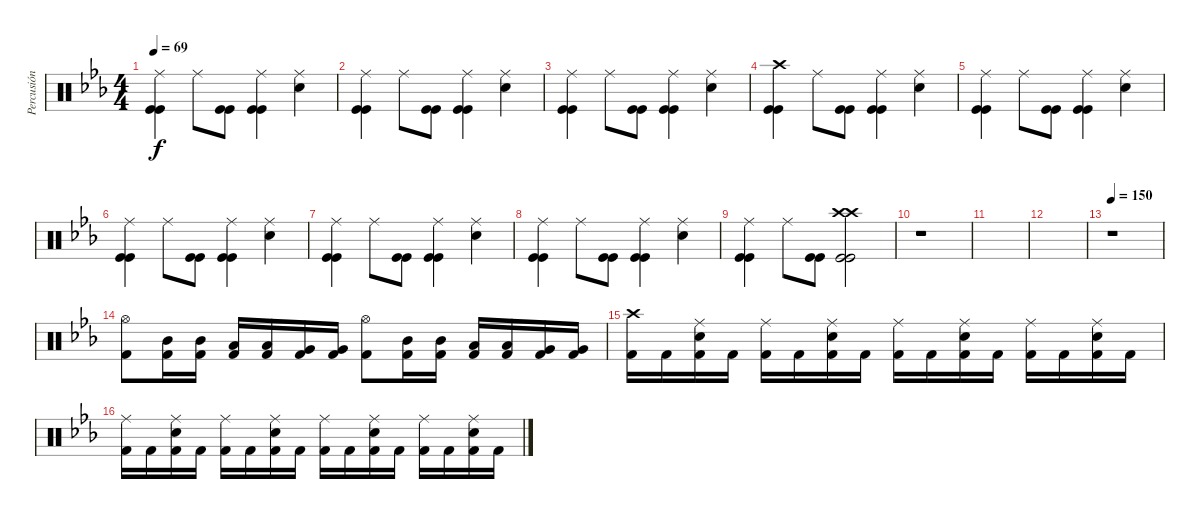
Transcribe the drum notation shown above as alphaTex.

\track ("Percusión" "Percusión") {instrument percussion}
\staff {score}
\articulation defaults
\ts (4 4)
\tempo 69
\clef neutral
\ks cminor
("Ride (middle)" "Kick (hit)" "Kick (hit)").4{dy f} "Ride (middle)".8 ("Kick (hit)" "Kick (hit)").8 ("Ride (middle)" "Kick (hit)" "Kick (hit)").4 ("Ride (middle)" "Electric Snare (hit)").4 |
("Ride (middle)" "Kick (hit)" "Kick (hit)").4 "Ride (middle)".8 ("Kick (hit)" "Kick (hit)").8 ("Ride (middle)" "Kick (hit)" "Kick (hit)").4 ("Ride (middle)" "Electric Snare (hit)").4 |
("Ride (middle)" "Kick (hit)" "Kick (hit)").4 "Ride (middle)".8 ("Kick (hit)" "Kick (hit)").8 ("Ride (middle)" "Kick (hit)" "Kick (hit)").4 ("Ride (middle)" "Electric Snare (hit)").4 |
("Crash high (hit)" "Kick (hit)" "Kick (hit)").4 "Ride (middle)".8 ("Kick (hit)" "Kick (hit)").8 ("Ride (middle)" "Kick (hit)" "Kick (hit)").4 ("Ride (middle)" "Electric Snare (hit)").4 |
("Ride (middle)" "Kick (hit)" "Kick (hit)").4 "Ride (middle)".8 ("Kick (hit)" "Kick (hit)").8 ("Ride (middle)" "Kick (hit)" "Kick (hit)").4 ("Ride (middle)" "Electric Snare (hit)").4 |
("Ride (middle)" "Kick (hit)" "Kick (hit)").4 "Ride (middle)".8 ("Kick (hit)" "Kick (hit)").8 ("Ride (middle)" "Kick (hit)" "Kick (hit)").4 ("Ride (middle)" "Electric Snare (hit)").4 |
("Ride (middle)" "Kick (hit)" "Kick (hit)").4 "Ride (middle)".8 ("Kick (hit)" "Kick (hit)").8 ("Ride (middle)" "Kick (hit)" "Kick (hit)").4 ("Ride (middle)" "Electric Snare (hit)").4 |
("Ride (middle)" "Kick (hit)" "Kick (hit)").4 "Ride (middle)".8 ("Kick (hit)" "Kick (hit)").8 ("Ride (middle)" "Kick (hit)" "Kick (hit)").4 ("Ride (middle)" "Electric Snare (hit)").4 |
("Ride (middle)" "Kick (hit)" "Kick (hit)").4 "Ride (middle)".8 ("Kick (hit)" "Kick (hit)").8 ("Crash high (hit)" "Crash high (hit)" "Kick (hit)" "Kick (hit)").2 |
r.1 |
|
|
\tempo 150
r.1{volume 7 balance 8} |
("Hi-Hat (open)" "Kick (hit) 2").8 ("Mid Tom (hit)" "Kick (hit) 2").16 ("Mid Tom (hit)" "Kick (hit) 2").16 ("Low Tom (hit)" "Kick (hit) 2").16 ("Low Tom (hit)" "Kick (hit) 2").16 ("Very Low Tom (hit)" "Kick (hit) 2").16 ("Very Low Tom (hit)" "Kick (hit) 2").16 ("Hi-Hat (open)" "Kick (hit) 2").8 ("Mid Tom (hit)" "Kick (hit) 2").16 ("Mid Tom (hit)" "Kick (hit) 2").16 ("Low Tom (hit)" "Kick (hit) 2").16 ("Low Tom (hit)" "Kick (hit) 2").16 ("Very Low Tom (hit)" "Kick (hit) 2").16 ("Very Low Tom (hit)" "Kick (hit) 2").16 |
("Crash high (hit)" "Kick (hit) 2").16 "Kick (hit) 2".16 ("Ride (middle)" "Electric Snare (hit)" "Kick (hit) 2").16 "Kick (hit) 2".16 ("Ride (middle)" "Kick (hit) 2").16 "Kick (hit) 2".16 ("Ride (middle)" "Electric Snare (hit)" "Kick (hit) 2").16 "Kick (hit) 2".16 ("Ride (middle)" "Kick (hit) 2").16 "Kick (hit) 2".16 ("Ride (middle)" "Electric Snare (hit)" "Kick (hit) 2").16 "Kick (hit) 2".16 ("Ride (middle)" "Kick (hit) 2").16 "Kick (hit) 2".16 ("Ride (middle)" "Electric Snare (hit)" "Kick (hit) 2").16 "Kick (hit) 2".16 |
("Ride (middle)" "Kick (hit) 2").16 "Kick (hit) 2".16 ("Ride (middle)" "Electric Snare (hit)" "Kick (hit) 2").16 "Kick (hit) 2".16 ("Ride (middle)" "Kick (hit) 2").16 "Kick (hit) 2".16 ("Ride (middle)" "Electric Snare (hit)" "Kick (hit) 2").16 "Kick (hit) 2".16 ("Ride (middle)" "Kick (hit) 2").16 "Kick (hit) 2".16 ("Ride (middle)" "Electric Snare (hit)" "Kick (hit) 2").16 "Kick (hit) 2".16 ("Ride (middle)" "Kick (hit) 2").16 "Kick (hit) 2".16 ("Ride (middle)" "Electric Snare (hit)" "Kick (hit) 2").16 "Kick (hit) 2".16
